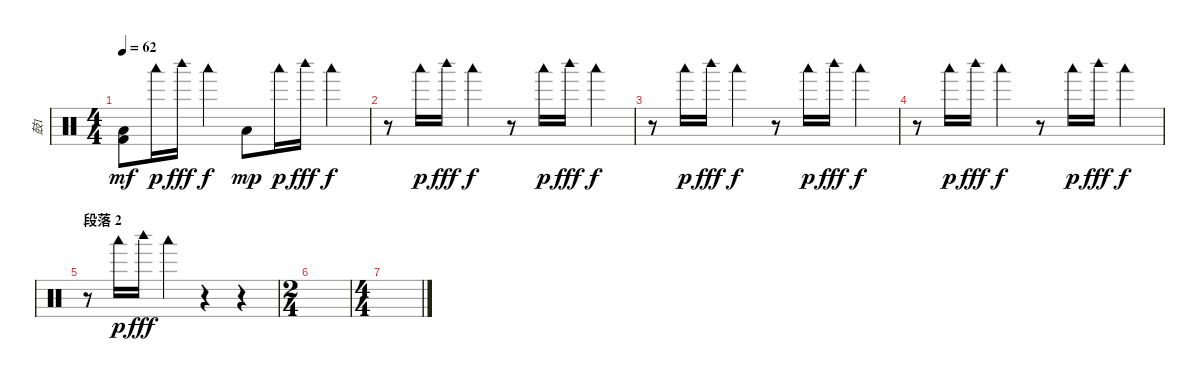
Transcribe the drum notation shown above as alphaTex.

\track ("鼓1" "鼓1") {instrument percussion}
\staff {score}
\articulation defaults
\ts (4 4)
\tempo 62
\clef neutral
\ks c
("Low Floor Tom (hit)" "Kick (hit) 2").8{dy mf} "Woodblock low (hit)".16{dy p} "Woodblock high (hit)".16{dy fff} "Woodblock low (hit)".4{dy f} "Low Floor Tom (hit)".8{dy mp} "Woodblock low (hit)".16{dy p} "Woodblock high (hit)".16{dy fff} "Woodblock low (hit)".4{dy f} |
r.8 "Woodblock low (hit)".16{dy p} "Woodblock high (hit)".16{dy fff} "Woodblock low (hit)".4{dy f} r.8 "Woodblock low (hit)".16{dy p} "Woodblock high (hit)".16{dy fff} "Woodblock low (hit)".4{dy f} |
r.8 "Woodblock low (hit)".16{dy p} "Woodblock high (hit)".16{dy fff} "Woodblock low (hit)".4{dy f} r.8 "Woodblock low (hit)".16{dy p} "Woodblock high (hit)".16{dy fff} "Woodblock low (hit)".4{dy f} |
r.8 "Woodblock low (hit)".16{dy p} "Woodblock high (hit)".16{dy fff} "Woodblock low (hit)".4{dy f} r.8 "Woodblock low (hit)".16{dy p} "Woodblock high (hit)".16{dy fff} "Woodblock low (hit)".4{dy f} |
\section ("" "段落 2")
r.8 "Woodblock low (hit)".16{dy p} "Woodblock high (hit)".16{dy fff} "Woodblock low (hit)".4 r.4 r.4 |
\ts (2 4)
|
\ts (4 4)
